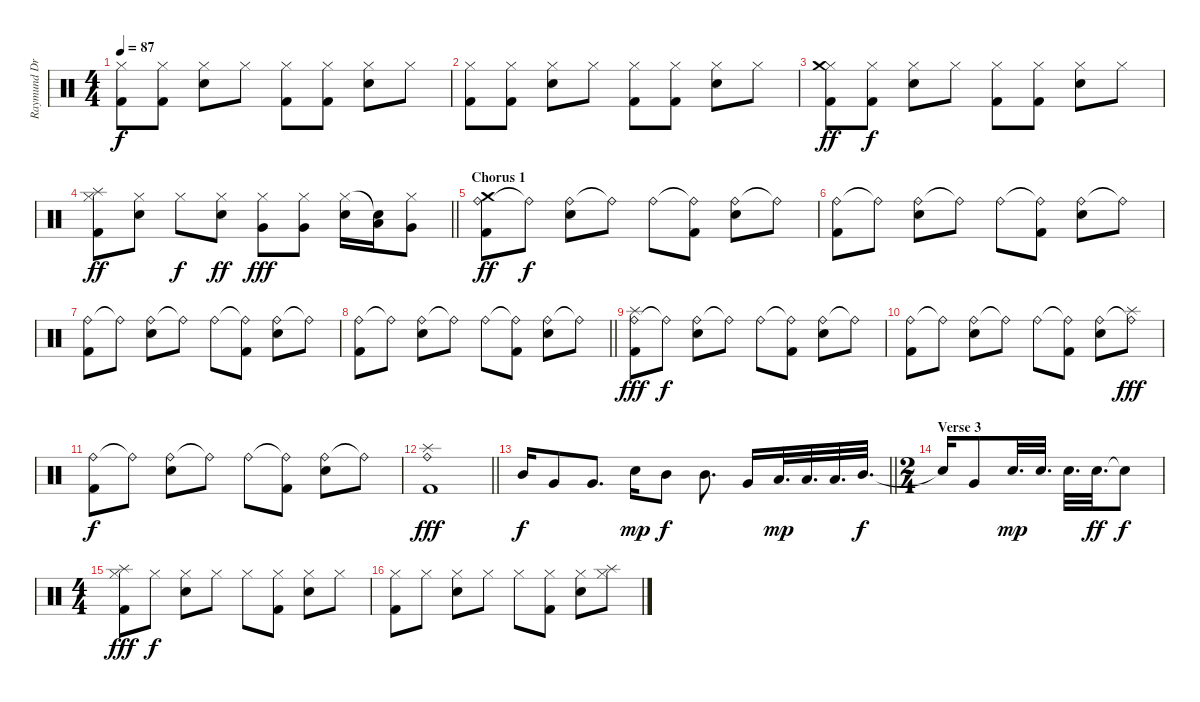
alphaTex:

\track ("Raymund Drums" "Raymund Dr") {instrument percussion}
\staff {score}
\articulation defaults
\ts (4 4)
\tempo 87
\clef neutral
\ks c
("Hi-Hat (closed)" "Kick (hit) 2").8{dy f} ("Hi-Hat (closed)" "Kick (hit) 2").8 ("Hi-Hat (closed)" "Snare (hit) 2").8 "Hi-Hat (closed)".8 ("Hi-Hat (closed)" "Kick (hit) 2").8 ("Hi-Hat (closed)" "Kick (hit) 2").8 ("Hi-Hat (closed)" "Snare (hit) 2").8 "Hi-Hat (closed)".8 |
("Hi-Hat (closed)" "Kick (hit) 2").8 ("Hi-Hat (closed)" "Kick (hit) 2").8 ("Hi-Hat (closed)" "Snare (hit) 2").8 "Hi-Hat (closed)".8 ("Hi-Hat (closed)" "Kick (hit) 2").8 ("Hi-Hat (closed)" "Kick (hit) 2").8 ("Hi-Hat (closed)" "Snare (hit) 2").8 "Hi-Hat (closed)".8 |
("Hi-Hat (closed)" "Kick (hit) 2" "Crash medium (hit)").8{dy ff} ("Hi-Hat (closed)" "Kick (hit) 2").8{dy f} ("Hi-Hat (closed)" "Snare (hit) 2").8 "Hi-Hat (closed)".8 ("Hi-Hat (closed)" "Kick (hit) 2").8 ("Hi-Hat (closed)" "Kick (hit) 2").8 ("Hi-Hat (closed)" "Snare (hit) 2").8 "Hi-Hat (closed)".8 |
\barLineRight lightlight
("Hi-Hat (closed)" "Kick (hit) 2" "Splash (hit)").8{dy ff} ("Hi-Hat (closed)" "Snare (hit) 2").8 "Hi-Hat (closed)".8{dy f} ("Hi-Hat (closed)" "Snare (hit) 2").8{dy ff} ("Hi-Hat (closed)" "Very Low Tom (hit)").8{dy fff} ("Hi-Hat (closed)" "Very Low Tom (hit)").8 ("Hi-Hat (closed)" "Snare (hit) 2").16 ("Snare (hit)"{t} "Low Tom (hit)").16 ("Hi-Hat (closed)" "Very Low Tom (hit)").8 |
\section ("" "Chorus 1")
("Ride (bell)" "Kick (hit) 2" "Crash medium (hit)").8{dy ff} "Ride (bell)"{t}.8{dy f} ("Ride (bell)" "Snare (hit) 2").8 "Ride (bell)"{t}.8 "Ride (bell)".8 ("Ride (bell)"{t} "Kick (hit) 2").8 ("Ride (bell)" "Snare (hit) 2").8 "Ride (bell)"{t}.8 |
("Ride (bell)" "Kick (hit) 2").8 "Ride (bell)"{t}.8 ("Ride (bell)" "Snare (hit) 2").8 "Ride (bell)"{t}.8 "Ride (bell)".8 ("Ride (bell)"{t} "Kick (hit) 2").8 ("Ride (bell)" "Snare (hit) 2").8 "Ride (bell)"{t}.8 |
("Ride (bell)" "Kick (hit) 2").8 "Ride (bell)"{t}.8 ("Ride (bell)" "Snare (hit) 2").8 "Ride (bell)"{t}.8 "Ride (bell)".8 ("Ride (bell)"{t} "Kick (hit) 2").8 ("Ride (bell)" "Snare (hit) 2").8 "Ride (bell)"{t}.8 |
\barLineRight lightlight
("Ride (bell)" "Kick (hit) 2").8 "Ride (bell)"{t}.8 ("Ride (bell)" "Snare (hit) 2").8 "Ride (bell)"{t}.8 "Ride (bell)".8 ("Ride (bell)"{t} "Kick (hit) 2").8 ("Ride (bell)" "Snare (hit) 2").8 "Ride (bell)"{t}.8 |
("Ride (bell)" "Kick (hit) 2" "Splash (hit)").8{dy fff} "Ride (bell)"{t}.8{dy f} ("Ride (bell)" "Snare (hit) 2").8 "Ride (bell)"{t}.8 "Ride (bell)".8 ("Ride (bell)"{t} "Kick (hit) 2").8 ("Ride (bell)" "Snare (hit) 2").8 "Ride (bell)"{t}.8 |
("Ride (bell)" "Kick (hit) 2").8 "Ride (bell)"{t}.8 ("Ride (bell)" "Snare (hit) 2").8 "Ride (bell)"{t}.8 "Ride (bell)".8 ("Ride (bell)"{t} "Kick (hit) 2").8 ("Ride (bell)" "Snare (hit) 2").8 ("Ride (bell)"{t} "Splash (hit)").8{dy fff} |
("Ride (bell)" "Kick (hit) 2").8{dy f} "Ride (bell)"{t}.8 ("Ride (bell)" "Snare (hit) 2").8 "Ride (bell)"{t}.8 "Ride (bell)".8 ("Ride (bell)"{t} "Kick (hit) 2").8 ("Ride (bell)" "Snare (hit) 2").8 "Ride (bell)"{t}.8 |
\barLineRight lightlight
("Ride (bell)" "Kick (hit) 2" "Splash (hit)").1{dy fff} |
\barLineRight lightlight "Mid Tom (hit)".16{dy f} "Very Low Tom (hit)".8 "Very Low Tom (hit)".8{d} "Snare (hit) 2".16{dy mp} "Mid Tom (hit)".8{dy f} "Mid Tom (hit)".8{d} "Very Low Tom (hit)".16 "Low Tom (hit)".32{d dy mp} "Low Tom (hit)".32{d} "Low Tom (hit)".32{d} "Mid Tom (hit)".32{d dy f}
|
\ts (2 4)
\section ("" "Verse 3")
"Snare (hit)"{t}.16 "Very Low Tom (hit)".8 "Snare (hit) 2".32{d dy mp} "Snare (hit) 2".32{d} "Snare (hit) 2".32{d} "Snare (hit) 2".32{d dy ff} "Snare (hit)"{t}.8{dy f} |
\ts (4 4)
("Hi-Hat (closed)" "Kick (hit) 2" "Splash (hit)").8{dy fff} "Hi-Hat (closed)".8{dy f} ("Hi-Hat (closed)" "Snare (hit) 2").8 "Hi-Hat (closed)".8 "Hi-Hat (closed)".8 ("Hi-Hat (closed)" "Kick (hit) 2").8 ("Hi-Hat (closed)" "Snare (hit) 2").8 "Hi-Hat (closed)".8 |
("Hi-Hat (closed)" "Kick (hit) 2").8 "Hi-Hat (closed)".8 ("Hi-Hat (closed)" "Snare (hit) 2").8 "Hi-Hat (closed)".8 "Hi-Hat (closed)".8 ("Hi-Hat (closed)" "Kick (hit) 2").8 ("Hi-Hat (closed)" "Snare (hit) 2").8 ("Hi-Hat (closed)" "Splash (hit)").8
